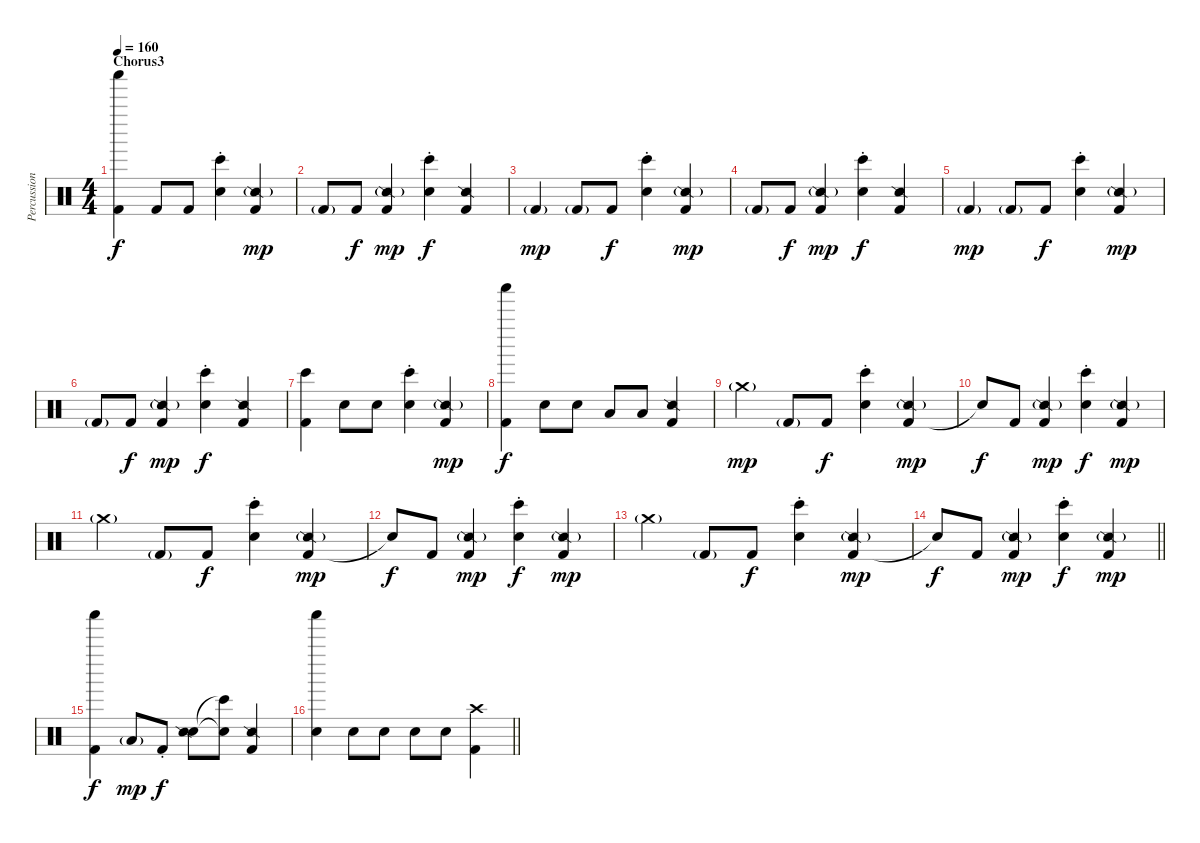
\track ("Percussion" "Percussion") {instrument percussion}
\staff {score}
\articulation defaults
\ts (4 4)
\section ("" "Chorus3")
\tempo 160
\clef neutral
\ks c
("Kick (hit) 2" "Shaker (hit)").4{dy f} "Kick (hit) 2".8 "Kick (hit) 2".8 ("Electric Snare (hit)" "Bongo High (hit)"{st}).4 ("Kick (hit) 2" "Snare (side stick) 2"{g}).4{dy mp} |
"Kick (hit) 2"{g}.8 "Kick (hit) 2".8{dy f} ("Kick (hit) 2" "Snare (side stick) 2"{g}).4{dy mp} ("Electric Snare (hit)" "Bongo High (hit)"{st}).4{dy f} ("Kick (hit) 2" "Snare (side stick) 2").4 |
"Kick (hit) 2"{g}.4{dy mp} "Kick (hit) 2"{g}.8 "Kick (hit) 2".8{dy f} ("Electric Snare (hit)" "Bongo High (hit)"{st}).4 ("Kick (hit) 2" "Snare (side stick) 2"{g}).4{dy mp} |
"Kick (hit) 2"{g}.8 "Kick (hit) 2".8{dy f} ("Kick (hit) 2" "Snare (side stick) 2"{g}).4{dy mp} ("Electric Snare (hit)" "Bongo High (hit)"{st}).4{dy f} ("Kick (hit) 2" "Snare (side stick) 2").4 |
"Kick (hit) 2"{g}.4{dy mp} "Kick (hit) 2"{g}.8 "Kick (hit) 2".8{dy f} ("Electric Snare (hit)" "Bongo High (hit)"{st}).4 ("Kick (hit) 2" "Snare (side stick) 2"{g}).4{dy mp} |
"Kick (hit) 2"{g}.8 "Kick (hit) 2".8{dy f} ("Kick (hit) 2" "Snare (side stick) 2"{g}).4{dy mp} ("Electric Snare (hit)" "Bongo High (hit)"{st}).4{dy f} ("Kick (hit) 2" "Snare (side stick) 2").4 |
("Kick (hit) 2" "Bongo High (hit)").4 "Electric Snare (hit)".8 "Electric Snare (hit)".8 ("Electric Snare (hit)" "Bongo High (hit)"{st}).4 ("Kick (hit) 2" "Snare (side stick) 2"{g}).4{dy mp} |
("Kick (hit) 2" "Shaker (hit)").4{dy f} "Electric Snare (hit)".8 "Electric Snare (hit)".8 "Low Tom (hit)".8 "Low Tom (hit)".8 ("Kick (hit) 2" "Snare (side stick) 2").4 |
"Crash medium (hit)"{g}.4{dy mp} "Kick (hit) 2"{g}.8 "Kick (hit) 2".8{dy f} ("Electric Snare (hit)" "Bongo High (hit)"{st}).4 ("Kick (hit) 2" "Snare (side stick) 2"{g}).4{dy mp} |
"Snare (hit)"{t}.8{dy f} "Kick (hit) 2".8 ("Kick (hit) 2" "Snare (side stick) 2"{g}).4{dy mp} ("Electric Snare (hit)" "Bongo High (hit)"{st}).4{dy f} ("Kick (hit) 2" "Snare (side stick) 2"{g}).4{dy mp} |
"Crash medium (hit)"{g}.4 "Kick (hit) 2"{g}.8 "Kick (hit) 2".8{dy f} ("Electric Snare (hit)" "Bongo High (hit)"{st}).4 ("Kick (hit) 2" "Snare (side stick) 2"{g}).4{dy mp} |
"Snare (hit)"{t}.8{dy f} "Kick (hit) 2".8 ("Kick (hit) 2" "Snare (side stick) 2"{g}).4{dy mp} ("Electric Snare (hit)" "Bongo High (hit)"{st}).4{dy f} ("Kick (hit) 2" "Snare (side stick) 2"{g}).4{dy mp} |
"Crash medium (hit)"{g}.4 "Kick (hit) 2"{g}.8 "Kick (hit) 2".8{dy f} ("Electric Snare (hit)" "Bongo High (hit)"{st}).4 ("Kick (hit) 2" "Snare (side stick) 2"{g}).4{dy mp} |
\barLineRight lightlight "Snare (hit)"{t}.8{dy f} "Kick (hit) 2".8
("Kick (hit) 2" "Snare (side stick) 2"{g}).4{dy mp} ("Electric Snare (hit)" "Bongo High (hit)"{st}).4{dy f} ("Kick (hit) 2" "Snare (side stick) 2"{g}).4{dy mp} |
("Kick (hit) 2" "Shaker (hit)").4{dy f} "Low Tom (hit)"{g}.8{dy mp} "Kick (hit) 2"{st}.8{dy f} ("Electric Snare (hit)" "Snare (side stick) 2").8 ("Electric Snare (hit)"{t} "Bongo High (hit)"{t}).8 ("Kick (hit) 2" "Snare (side stick) 2").4 |
\barLineRight lightlight
("Electric Snare (hit)" "Shaker (hit)").4 "Electric Snare (hit)".8 "Electric Snare (hit)".8 "Electric Snare (hit)".8 "Electric Snare (hit)".8 ("Kick (hit) 2" "Crash high (hit)").4
